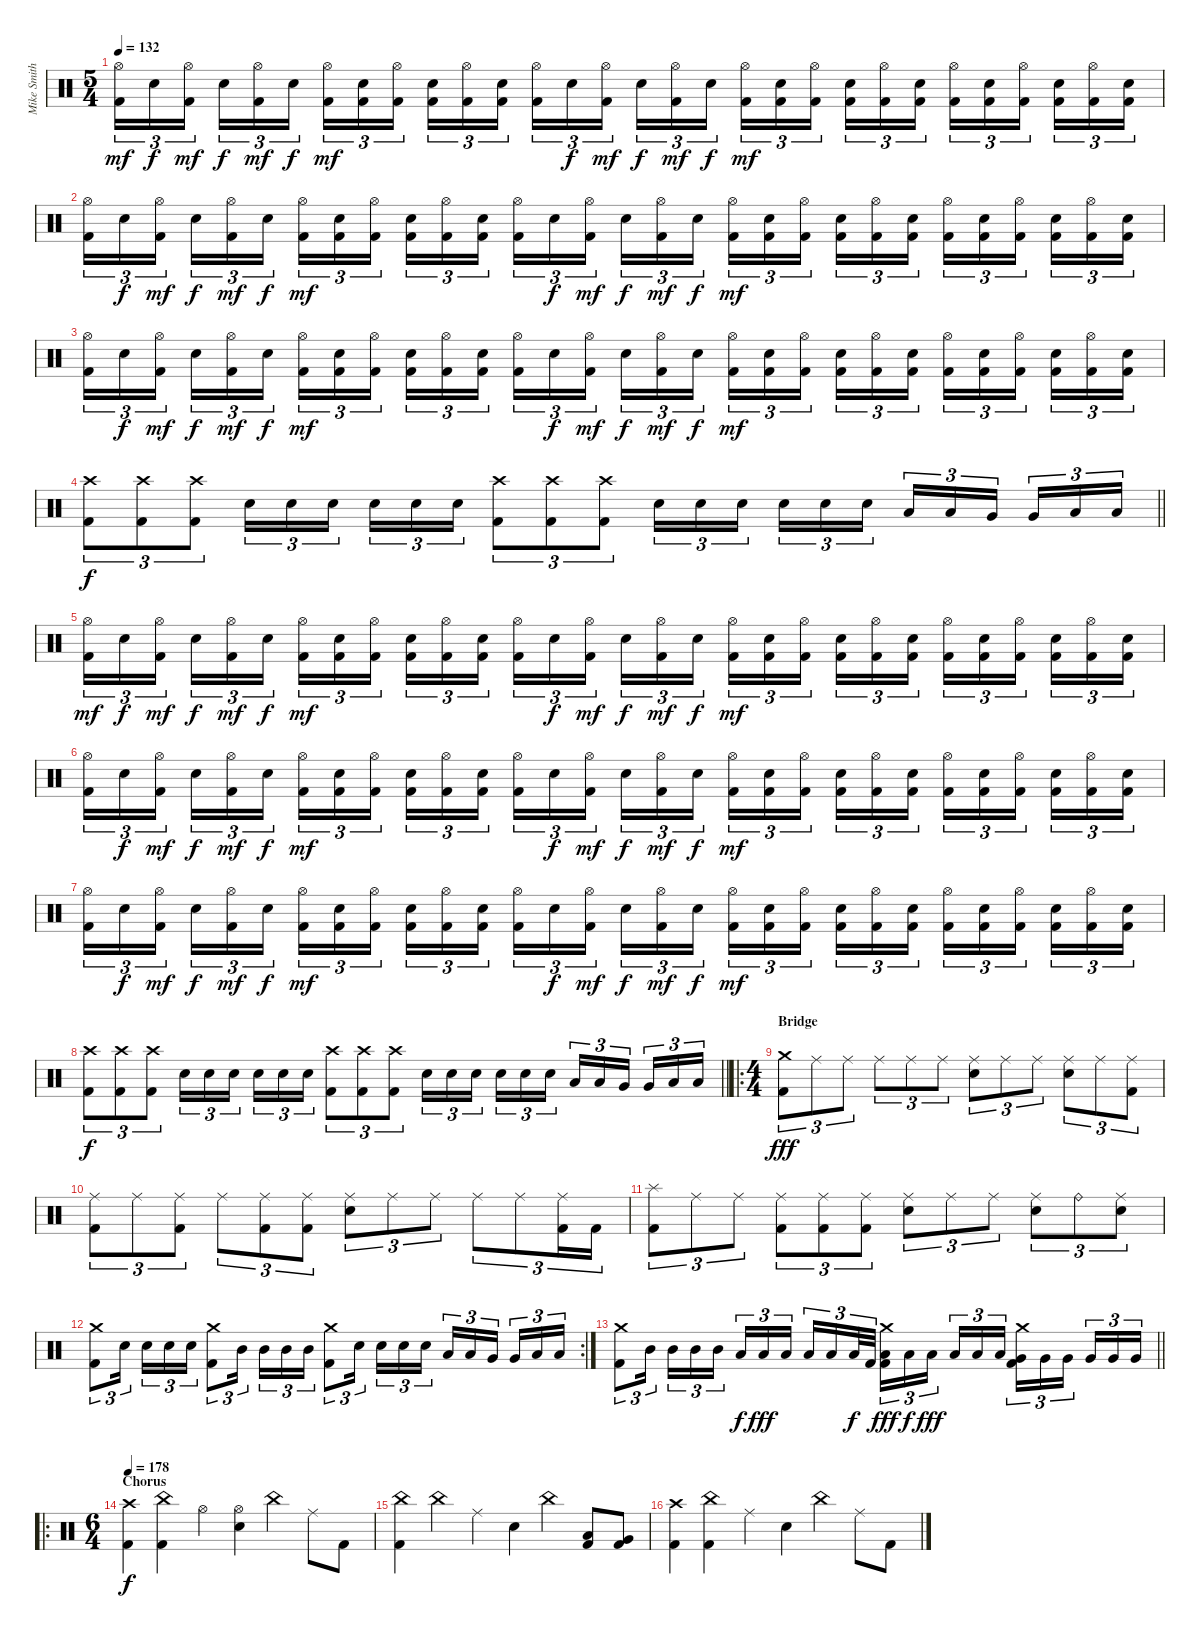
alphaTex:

\track ("Mike Smith" "Mike Smith") {instrument percussion}
\staff {score}
\articulation defaults
\ts (5 4)
\tempo 132
\clef neutral
\ks c
("Hi-Hat (open)" "Kick (hit) 2").16{tu (3 2) dy mf} "Electric Snare (hit)".16{tu (3 2) dy f} ("Hi-Hat (open)" "Kick (hit) 2").16{tu (3 2) dy mf beam splitsecondary} "Electric Snare (hit)".16{tu (3 2) dy f} ("Hi-Hat (open)" "Kick (hit) 2").16{tu (3 2) dy mf} "Electric Snare (hit)".16{tu (3 2) dy f} ("Hi-Hat (open)" "Kick (hit) 2").16{tu (3 2) dy mf} ("Electric Snare (hit)" "Kick (hit) 2").16{tu (3 2)} ("Hi-Hat (open)" "Kick (hit) 2").16{tu (3 2) beam splitsecondary} ("Electric Snare (hit)" "Kick (hit) 2").16{tu (3 2)} ("Hi-Hat (open)" "Kick (hit) 2").16{tu (3 2)} ("Electric Snare (hit)" "Kick (hit) 2").16{tu (3 2)} ("Hi-Hat (open)" "Kick (hit) 2").16{tu (3 2)} "Electric Snare (hit)".16{tu (3 2) dy f} ("Hi-Hat (open)" "Kick (hit) 2").16{tu (3 2) dy mf beam splitsecondary} "Electric Snare (hit)".16{tu (3 2) dy f} ("Hi-Hat (open)" "Kick (hit) 2").16{tu (3 2) dy mf} "Electric Snare (hit)".16{tu (3 2) dy f} ("Hi-Hat (open)" "Kick (hit) 2").16{tu (3 2) dy mf} ("Electric Snare (hit)" "Kick (hit) 2").16{tu (3 2)} ("Hi-Hat (open)" "Kick (hit) 2").16{tu (3 2) beam splitsecondary} ("Electric Snare (hit)" "Kick (hit) 2").16{tu (3 2)} ("Hi-Hat (open)" "Kick (hit) 2").16{tu (3 2)} ("Electric Snare (hit)" "Kick (hit) 2").16{tu (3 2)} ("Hi-Hat (open)" "Kick (hit) 2").16{tu (3 2)} ("Electric Snare (hit)" "Kick (hit) 2").16{tu (3 2)} ("Hi-Hat (open)" "Kick (hit) 2").16{tu (3 2) beam splitsecondary} ("Electric Snare (hit)" "Kick (hit) 2").16{tu (3 2)} ("Hi-Hat (open)" "Kick (hit) 2").16{tu (3 2)} ("Electric Snare (hit)" "Kick (hit) 2").16{tu (3 2)} |
("Hi-Hat (open)" "Kick (hit) 2").16{tu (3 2)} "Electric Snare (hit)".16{tu (3 2) dy f} ("Hi-Hat (open)" "Kick (hit) 2").16{tu (3 2) dy mf beam splitsecondary} "Electric Snare (hit)".16{tu (3 2) dy f} ("Hi-Hat (open)" "Kick (hit) 2").16{tu (3 2) dy mf} "Electric Snare (hit)".16{tu (3 2) dy f} ("Hi-Hat (open)" "Kick (hit) 2").16{tu (3 2) dy mf} ("Electric Snare (hit)" "Kick (hit) 2").16{tu (3 2)} ("Hi-Hat (open)" "Kick (hit) 2").16{tu (3 2) beam splitsecondary} ("Electric Snare (hit)" "Kick (hit) 2").16{tu (3 2)} ("Hi-Hat (open)" "Kick (hit) 2").16{tu (3 2)} ("Electric Snare (hit)" "Kick (hit) 2").16{tu (3 2)} ("Hi-Hat (open)" "Kick (hit) 2").16{tu (3 2)} "Electric Snare (hit)".16{tu (3 2) dy f} ("Hi-Hat (open)" "Kick (hit) 2").16{tu (3 2) dy mf beam splitsecondary} "Electric Snare (hit)".16{tu (3 2) dy f} ("Hi-Hat (open)" "Kick (hit) 2").16{tu (3 2) dy mf} "Electric Snare (hit)".16{tu (3 2) dy f} ("Hi-Hat (open)" "Kick (hit) 2").16{tu (3 2) dy mf} ("Electric Snare (hit)" "Kick (hit) 2").16{tu (3 2)} ("Hi-Hat (open)" "Kick (hit) 2").16{tu (3 2) beam splitsecondary} ("Electric Snare (hit)" "Kick (hit) 2").16{tu (3 2)} ("Hi-Hat (open)" "Kick (hit) 2").16{tu (3 2)} ("Electric Snare (hit)" "Kick (hit) 2").16{tu (3 2)} ("Hi-Hat (open)" "Kick (hit) 2").16{tu (3 2)} ("Electric Snare (hit)" "Kick (hit) 2").16{tu (3 2)} ("Hi-Hat (open)" "Kick (hit) 2").16{tu (3 2) beam splitsecondary} ("Electric Snare (hit)" "Kick (hit) 2").16{tu (3 2)} ("Hi-Hat (open)" "Kick (hit) 2").16{tu (3 2)} ("Electric Snare (hit)" "Kick (hit) 2").16{tu (3 2)} |
("Hi-Hat (open)" "Kick (hit) 2").16{tu (3 2)} "Electric Snare (hit)".16{tu (3 2) dy f} ("Hi-Hat (open)" "Kick (hit) 2").16{tu (3 2) dy mf beam splitsecondary} "Electric Snare (hit)".16{tu (3 2) dy f} ("Hi-Hat (open)" "Kick (hit) 2").16{tu (3 2) dy mf} "Electric Snare (hit)".16{tu (3 2) dy f} ("Hi-Hat (open)" "Kick (hit) 2").16{tu (3 2) dy mf} ("Electric Snare (hit)" "Kick (hit) 2").16{tu (3 2)} ("Hi-Hat (open)" "Kick (hit) 2").16{tu (3 2) beam splitsecondary} ("Electric Snare (hit)" "Kick (hit) 2").16{tu (3 2)} ("Hi-Hat (open)" "Kick (hit) 2").16{tu (3 2)} ("Electric Snare (hit)" "Kick (hit) 2").16{tu (3 2)} ("Hi-Hat (open)" "Kick (hit) 2").16{tu (3 2)} "Electric Snare (hit)".16{tu (3 2) dy f} ("Hi-Hat (open)" "Kick (hit) 2").16{tu (3 2) dy mf beam splitsecondary} "Electric Snare (hit)".16{tu (3 2) dy f} ("Hi-Hat (open)" "Kick (hit) 2").16{tu (3 2) dy mf} "Electric Snare (hit)".16{tu (3 2) dy f} ("Hi-Hat (open)" "Kick (hit) 2").16{tu (3 2) dy mf} ("Electric Snare (hit)" "Kick (hit) 2").16{tu (3 2)} ("Hi-Hat (open)" "Kick (hit) 2").16{tu (3 2) beam splitsecondary} ("Electric Snare (hit)" "Kick (hit) 2").16{tu (3 2)} ("Hi-Hat (open)" "Kick (hit) 2").16{tu (3 2)} ("Electric Snare (hit)" "Kick (hit) 2").16{tu (3 2)} ("Hi-Hat (open)" "Kick (hit) 2").16{tu (3 2)} ("Electric Snare (hit)" "Kick (hit) 2").16{tu (3 2)} ("Hi-Hat (open)" "Kick (hit) 2").16{tu (3 2) beam splitsecondary} ("Electric Snare (hit)" "Kick (hit) 2").16{tu (3 2)} ("Hi-Hat (open)" "Kick (hit) 2").16{tu (3 2)} ("Electric Snare (hit)" "Kick (hit) 2").16{tu (3 2)} |
\barLineRight lightlight
("Crash high (hit)" "Kick (hit) 2").8{tu (3 2) dy f} ("Crash high (hit)" "Kick (hit) 2").8{tu (3 2)} ("Crash high (hit)" "Kick (hit) 2").8{tu (3 2)} "Electric Snare (hit)".16{tu (3 2)} "Electric Snare (hit)".16{tu (3 2)} "Electric Snare (hit)".16{tu (3 2) beam splitsecondary} "Electric Snare (hit)".16{tu (3 2)} "Electric Snare (hit)".16{tu (3 2)} "Electric Snare (hit)".16{tu (3 2)} ("Crash high (hit)" "Kick (hit) 2").8{tu (3 2)} ("Crash high (hit)" "Kick (hit) 2").8{tu (3 2)} ("Crash high (hit)" "Kick (hit) 2").8{tu (3 2)} "Electric Snare (hit)".16{tu (3 2)} "Electric Snare (hit)".16{tu (3 2)} "Electric Snare (hit)".16{tu (3 2) beam splitsecondary} "Electric Snare (hit)".16{tu (3 2)} "Electric Snare (hit)".16{tu (3 2)} "Electric Snare (hit)".16{tu (3 2)} "Low Tom (hit)".16{tu (3 2)} "Low Tom (hit)".16{tu (3 2)} "Very Low Tom (hit)".16{tu (3 2) beam splitsecondary} "Very Low Tom (hit)".16{tu (3 2)} "Low Floor Tom (hit)".16{tu (3 2)} "Low Floor Tom (hit)".16{tu (3 2)} |
("Hi-Hat (open)" "Kick (hit) 2").16{tu (3 2) dy mf} "Electric Snare (hit)".16{tu (3 2) dy f} ("Hi-Hat (open)" "Kick (hit) 2").16{tu (3 2) dy mf beam splitsecondary} "Electric Snare (hit)".16{tu (3 2) dy f} ("Hi-Hat (open)" "Kick (hit) 2").16{tu (3 2) dy mf} "Electric Snare (hit)".16{tu (3 2) dy f} ("Hi-Hat (open)" "Kick (hit) 2").16{tu (3 2) dy mf} ("Electric Snare (hit)" "Kick (hit) 2").16{tu (3 2)} ("Hi-Hat (open)" "Kick (hit) 2").16{tu (3 2) beam splitsecondary} ("Electric Snare (hit)" "Kick (hit) 2").16{tu (3 2)} ("Hi-Hat (open)" "Kick (hit) 2").16{tu (3 2)} ("Electric Snare (hit)" "Kick (hit) 2").16{tu (3 2)} ("Hi-Hat (open)" "Kick (hit) 2").16{tu (3 2)} "Electric Snare (hit)".16{tu (3 2) dy f} ("Hi-Hat (open)" "Kick (hit) 2").16{tu (3 2) dy mf beam splitsecondary} "Electric Snare (hit)".16{tu (3 2) dy f} ("Hi-Hat (open)" "Kick (hit) 2").16{tu (3 2) dy mf} "Electric Snare (hit)".16{tu (3 2) dy f} ("Hi-Hat (open)" "Kick (hit) 2").16{tu (3 2) dy mf} ("Electric Snare (hit)" "Kick (hit) 2").16{tu (3 2)} ("Hi-Hat (open)" "Kick (hit) 2").16{tu (3 2) beam splitsecondary} ("Electric Snare (hit)" "Kick (hit) 2").16{tu (3 2)} ("Hi-Hat (open)" "Kick (hit) 2").16{tu (3 2)} ("Electric Snare (hit)" "Kick (hit) 2").16{tu (3 2)} ("Hi-Hat (open)" "Kick (hit) 2").16{tu (3 2)} ("Electric Snare (hit)" "Kick (hit) 2").16{tu (3 2)} ("Hi-Hat (open)" "Kick (hit) 2").16{tu (3 2) beam splitsecondary} ("Electric Snare (hit)" "Kick (hit) 2").16{tu (3 2)} ("Hi-Hat (open)" "Kick (hit) 2").16{tu (3 2)} ("Electric Snare (hit)" "Kick (hit) 2").16{tu (3 2)} |
("Hi-Hat (open)" "Kick (hit) 2").16{tu (3 2)} "Electric Snare (hit)".16{tu (3 2) dy f} ("Hi-Hat (open)" "Kick (hit) 2").16{tu (3 2) dy mf beam splitsecondary} "Electric Snare (hit)".16{tu (3 2) dy f} ("Hi-Hat (open)" "Kick (hit) 2").16{tu (3 2) dy mf} "Electric Snare (hit)".16{tu (3 2) dy f} ("Hi-Hat (open)" "Kick (hit) 2").16{tu (3 2) dy mf} ("Electric Snare (hit)" "Kick (hit) 2").16{tu (3 2)} ("Hi-Hat (open)" "Kick (hit) 2").16{tu (3 2) beam splitsecondary} ("Electric Snare (hit)" "Kick (hit) 2").16{tu (3 2)} ("Hi-Hat (open)" "Kick (hit) 2").16{tu (3 2)} ("Electric Snare (hit)" "Kick (hit) 2").16{tu (3 2)} ("Hi-Hat (open)" "Kick (hit) 2").16{tu (3 2)} "Electric Snare (hit)".16{tu (3 2) dy f} ("Hi-Hat (open)" "Kick (hit) 2").16{tu (3 2) dy mf beam splitsecondary} "Electric Snare (hit)".16{tu (3 2) dy f} ("Hi-Hat (open)" "Kick (hit) 2").16{tu (3 2) dy mf} "Electric Snare (hit)".16{tu (3 2) dy f} ("Hi-Hat (open)" "Kick (hit) 2").16{tu (3 2) dy mf} ("Electric Snare (hit)" "Kick (hit) 2").16{tu (3 2)} ("Hi-Hat (open)" "Kick (hit) 2").16{tu (3 2) beam splitsecondary} ("Electric Snare (hit)" "Kick (hit) 2").16{tu (3 2)} ("Hi-Hat (open)" "Kick (hit) 2").16{tu (3 2)} ("Electric Snare (hit)" "Kick (hit) 2").16{tu (3 2)} ("Hi-Hat (open)" "Kick (hit) 2").16{tu (3 2)} ("Electric Snare (hit)" "Kick (hit) 2").16{tu (3 2)} ("Hi-Hat (open)" "Kick (hit) 2").16{tu (3 2) beam splitsecondary} ("Electric Snare (hit)" "Kick (hit) 2").16{tu (3 2)} ("Hi-Hat (open)" "Kick (hit) 2").16{tu (3 2)} ("Electric Snare (hit)" "Kick (hit) 2").16{tu (3 2)} |
("Hi-Hat (open)" "Kick (hit) 2").16{tu (3 2)} "Electric Snare (hit)".16{tu (3 2) dy f} ("Hi-Hat (open)" "Kick (hit) 2").16{tu (3 2) dy mf beam splitsecondary} "Electric Snare (hit)".16{tu (3 2) dy f} ("Hi-Hat (open)" "Kick (hit) 2").16{tu (3 2) dy mf} "Electric Snare (hit)".16{tu (3 2) dy f} ("Hi-Hat (open)" "Kick (hit) 2").16{tu (3 2) dy mf} ("Electric Snare (hit)" "Kick (hit) 2").16{tu (3 2)} ("Hi-Hat (open)" "Kick (hit) 2").16{tu (3 2) beam splitsecondary} ("Electric Snare (hit)" "Kick (hit) 2").16{tu (3 2)} ("Hi-Hat (open)" "Kick (hit) 2").16{tu (3 2)} ("Electric Snare (hit)" "Kick (hit) 2").16{tu (3 2)} ("Hi-Hat (open)" "Kick (hit) 2").16{tu (3 2)} "Electric Snare (hit)".16{tu (3 2) dy f} ("Hi-Hat (open)" "Kick (hit) 2").16{tu (3 2) dy mf beam splitsecondary} "Electric Snare (hit)".16{tu (3 2) dy f} ("Hi-Hat (open)" "Kick (hit) 2").16{tu (3 2) dy mf} "Electric Snare (hit)".16{tu (3 2) dy f} ("Hi-Hat (open)" "Kick (hit) 2").16{tu (3 2) dy mf} ("Electric Snare (hit)" "Kick (hit) 2").16{tu (3 2)} ("Hi-Hat (open)" "Kick (hit) 2").16{tu (3 2) beam splitsecondary} ("Electric Snare (hit)" "Kick (hit) 2").16{tu (3 2)} ("Hi-Hat (open)" "Kick (hit) 2").16{tu (3 2)} ("Electric Snare (hit)" "Kick (hit) 2").16{tu (3 2)} ("Hi-Hat (open)" "Kick (hit) 2").16{tu (3 2)} ("Electric Snare (hit)" "Kick (hit) 2").16{tu (3 2)} ("Hi-Hat (open)" "Kick (hit) 2").16{tu (3 2) beam splitsecondary} ("Electric Snare (hit)" "Kick (hit) 2").16{tu (3 2)} ("Hi-Hat (open)" "Kick (hit) 2").16{tu (3 2)} ("Electric Snare (hit)" "Kick (hit) 2").16{tu (3 2)} |
\barLineRight lightlight
("Crash high (hit)" "Kick (hit) 2").8{tu (3 2) dy f} ("Crash high (hit)" "Kick (hit) 2").8{tu (3 2)} ("Crash high (hit)" "Kick (hit) 2").8{tu (3 2)} "Electric Snare (hit)".16{tu (3 2)} "Electric Snare (hit)".16{tu (3 2)} "Electric Snare (hit)".16{tu (3 2) beam splitsecondary} "Electric Snare (hit)".16{tu (3 2)} "Electric Snare (hit)".16{tu (3 2)} "Electric Snare (hit)".16{tu (3 2)} ("Crash high (hit)" "Kick (hit) 2").8{tu (3 2)} ("Crash high (hit)" "Kick (hit) 2").8{tu (3 2)} ("Crash high (hit)" "Kick (hit) 2").8{tu (3 2)} "Electric Snare (hit)".16{tu (3 2)} "Electric Snare (hit)".16{tu (3 2)} "Electric Snare (hit)".16{tu (3 2) beam splitsecondary} "Electric Snare (hit)".16{tu (3 2)} "Electric Snare (hit)".16{tu (3 2)} "Electric Snare (hit)".16{tu (3 2)} "Low Tom (hit)".16{tu (3 2)} "Low Tom (hit)".16{tu (3 2)} "Very Low Tom (hit)".16{tu (3 2) beam splitsecondary} "Very Low Tom (hit)".16{tu (3 2)} "Low Floor Tom (hit)".16{tu (3 2)} "Low Floor Tom (hit)".16{tu (3 2)} |
\ro
\ts (4 4)
\section ("" "Bridge")
("Crash medium (hit)" "Kick (hit) 2").8{tu (3 2) dy fff} "Ride (middle)".8{tu (3 2)} "Ride (middle)".8{tu (3 2)} "Ride (middle)".8{tu (3 2)} "Ride (middle)".8{tu (3 2)} "Ride (middle)".8{tu (3 2)} ("Ride (middle)" "Electric Snare (hit)").8{tu (3 2)} "Ride (middle)".8{tu (3 2)} "Ride (middle)".8{tu (3 2)} ("Ride (middle)" "Electric Snare (hit)").8{tu (3 2)} "Ride (middle)".8{tu (3 2)} ("Ride (middle)" "Kick (hit) 2").8{tu (3 2)} |
("Ride (middle)" "Kick (hit) 2").8{tu (3 2)} "Ride (middle)".8{tu (3 2)} ("Ride (middle)" "Kick (hit) 2").8{tu (3 2)} "Ride (middle)".8{tu (3 2)} ("Ride (middle)" "Kick (hit) 2").8{tu (3 2)} ("Ride (middle)" "Kick (hit) 2").8{tu (3 2)} ("Ride (middle)" "Electric Snare (hit)").8{tu (3 2)} "Ride (middle)".8{tu (3 2)} "Ride (middle)".8{tu (3 2)} "Ride (middle)".8{tu (3 2)} "Ride (middle)".8{tu (3 2)} ("Ride (middle)" "Kick (hit) 2").16{tu (3 2)} "Kick (hit) 2".16{tu (3 2)} |
("Splash (hit)" "Kick (hit) 2").8{tu (3 2)} "Ride (middle)".8{tu (3 2)} "Ride (middle)".8{tu (3 2)} ("Ride (middle)" "Kick (hit) 2").8{tu (3 2)} ("Ride (middle)" "Kick (hit) 2").8{tu (3 2)} ("Ride (middle)" "Kick (hit) 2").8{tu (3 2)} ("Ride (middle)" "Electric Snare (hit)").8{tu (3 2)} "Ride (middle)".8{tu (3 2)} "Ride (middle)".8{tu (3 2)} ("Ride (middle)" "Electric Snare (hit)").8{tu (3 2)} "Ride (bell)".8{tu (3 2)} ("Ride (middle)" "Electric Snare (hit)").8{tu (3 2)} |
\rc 2
("Crash medium (hit)" "Kick (hit) 2").8{tu (3 2)} "Electric Snare (hit)".16{tu (3 2) beam splitsecondary} "Electric Snare (hit)".16{tu (3 2)} "Electric Snare (hit)".16{tu (3 2)} "Electric Snare (hit)".16{tu (3 2)} ("Crash medium (hit)" "Kick (hit) 2").8{tu (3 2)} "Mid Tom (hit)".16{tu (3 2) beam splitsecondary} "Mid Tom (hit)".16{tu (3 2)} "Mid Tom (hit)".16{tu (3 2)} "Mid Tom (hit)".16{tu (3 2)} ("Crash medium (hit)" "Kick (hit) 2").8{tu (3 2)} "Electric Snare (hit)".16{tu (3 2) beam splitsecondary} "Electric Snare (hit)".16{tu (3 2)} "Electric Snare (hit)".16{tu (3 2)} "Electric Snare (hit)".16{tu (3 2)} "Low Tom (hit)".16{tu (3 2)} "Low Tom (hit)".16{tu (3 2)} "Very Low Tom (hit)".16{tu (3 2) beam splitsecondary} "Very Low Tom (hit)".16{tu (3 2)} "Low Floor Tom (hit)".16{tu (3 2)} "Low Floor Tom (hit)".16{tu (3 2)} |
\barLineRight lightlight
("Crash medium (hit)" "Kick (hit) 2").8{tu (3 2)} "Mid Tom (hit)".16{tu (3 2) beam splitsecondary} "Mid Tom (hit)".16{tu (3 2)} "Mid Tom (hit)".16{tu (3 2)} "Mid Tom (hit)".16{tu (3 2)} "Low Tom (hit)".16{tu (3 2) dy f} "Low Tom (hit)".16{tu (3 2) dy fff} "Low Tom (hit)".16{tu (3 2) beam splitsecondary} "Low Tom (hit)".16{tu (3 2)} "Low Tom (hit)".16{tu (3 2)} "Low Tom (hit)".32{tu (3 2) dy f} "Kick (hit) 2".32{tu (3 2)} ("Kick (hit) 2" "Crash medium (hit)" "Low Tom (hit)").16{tu (3 2) dy fff} "Low Tom (hit)".16{tu (3 2) dy f} "Low Tom (hit)".16{tu (3 2) dy fff beam splitsecondary} "Low Tom (hit)".16{tu (3 2)} "Low Tom (hit)".16{tu (3 2)} "Low Tom (hit)".16{tu (3 2)} ("Kick (hit) 2" "Crash medium (hit)" "Very Low Tom (hit)").16{tu (3 2)} "Very Low Tom (hit)".16{tu (3 2)} "Very Low Tom (hit)".16{tu (3 2) beam splitsecondary} "Very Low Tom (hit)".16{tu (3 2)} "Very Low Tom (hit)".16{tu (3 2)} "Very Low Tom (hit)".16{tu (3 2)} |
\ro
\ts (6 4)
\section ("" "Chorus")
\tempo 178
("Crash high (hit)" "Kick (hit) 2").4{dy f} ("China (hit)" "Kick (hit) 2").4 "Hi-Hat (open)".4 ("Hi-Hat (open)" "Electric Snare (hit)").4 "China (hit)".4 "Ride (middle)".8 "Kick (hit) 2".8 |
("China (hit)" "Kick (hit) 2").4 "China (hit)".4 "Ride (middle)".4 "Electric Snare (hit)".4 "China (hit)".4 ("Low Tom (hit)" "Kick (hit) 2").8 ("Very Low Tom (hit)" "Kick (hit) 2").8 |
("Crash high (hit)" "Kick (hit) 2").4 ("China (hit)" "Kick (hit) 2").4 "Ride (middle)".4 "Electric Snare (hit)".4 "China (hit)".4 "Ride (middle)".8 "Kick (hit) 2".8
